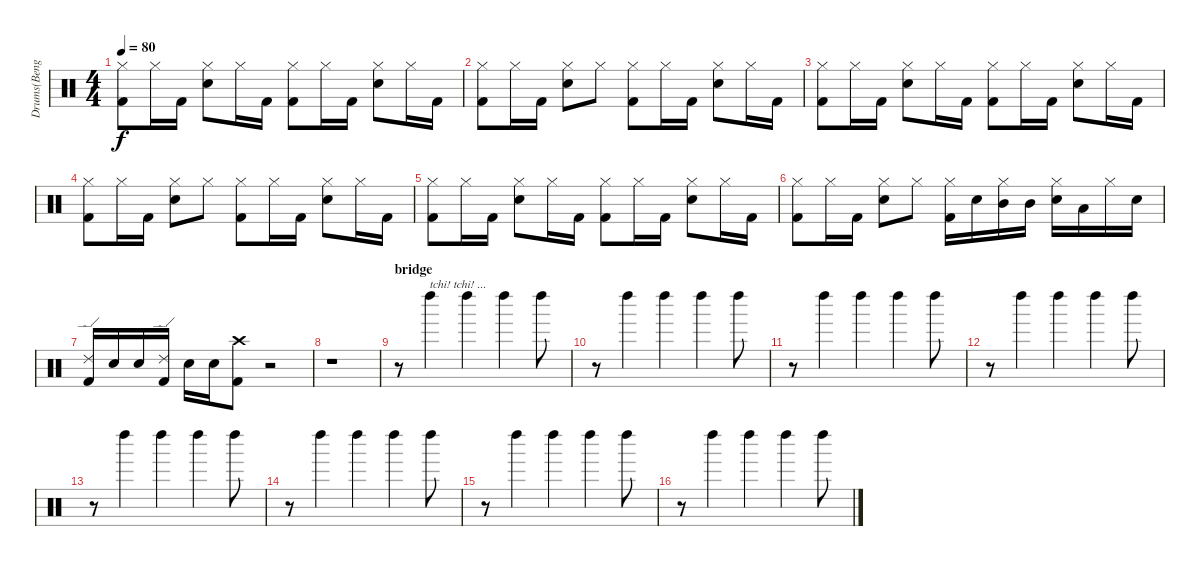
\track ("Drums(Bengerg)" "Drums(Beng") {instrument percussion}
\staff {score}
\articulation defaults
\ts (4 4)
\tempo 80
\clef neutral
\ks c
("Hi-Hat (closed)" "Kick (hit) 2").8{dy f} "Hi-Hat (closed)".16 "Kick (hit) 2".16 ("Hi-Hat (closed)" "Electric Snare (hit)").8 "Hi-Hat (closed)".16 "Kick (hit) 2".16 ("Hi-Hat (closed)" "Kick (hit) 2").8 "Hi-Hat (closed)".16 "Kick (hit) 2".16 ("Hi-Hat (closed)" "Electric Snare (hit)").8 "Hi-Hat (closed)".16 "Kick (hit) 2".16 |
("Hi-Hat (closed)" "Kick (hit) 2").8 "Hi-Hat (closed)".16 "Kick (hit) 2".16 ("Hi-Hat (closed)" "Electric Snare (hit)").8 "Hi-Hat (closed)".8 ("Hi-Hat (closed)" "Kick (hit) 2").8 "Hi-Hat (closed)".16 "Kick (hit) 2".16 ("Hi-Hat (closed)" "Electric Snare (hit)").8 "Hi-Hat (closed)".16 "Kick (hit) 2".16 |
("Hi-Hat (closed)" "Kick (hit) 2").8 "Hi-Hat (closed)".16 "Kick (hit) 2".16 ("Hi-Hat (closed)" "Electric Snare (hit)").8 "Hi-Hat (closed)".16 "Kick (hit) 2".16 ("Hi-Hat (closed)" "Kick (hit) 2").8 "Hi-Hat (closed)".16 "Kick (hit) 2".16 ("Hi-Hat (closed)" "Electric Snare (hit)").8 "Hi-Hat (closed)".16 "Kick (hit) 2".16 |
("Hi-Hat (closed)" "Kick (hit) 2").8 "Hi-Hat (closed)".16 "Kick (hit) 2".16 ("Hi-Hat (closed)" "Electric Snare (hit)").8 "Hi-Hat (closed)".8 ("Hi-Hat (closed)" "Kick (hit) 2").8 "Hi-Hat (closed)".16 "Kick (hit) 2".16 ("Hi-Hat (closed)" "Electric Snare (hit)").8 "Hi-Hat (closed)".16 "Kick (hit) 2".16 |
("Hi-Hat (closed)" "Kick (hit) 2").8 "Hi-Hat (closed)".16 "Kick (hit) 2".16 ("Hi-Hat (closed)" "Electric Snare (hit)").8 "Hi-Hat (closed)".16 "Kick (hit) 2".16 ("Hi-Hat (closed)" "Kick (hit) 2").8 "Hi-Hat (closed)".16 "Kick (hit) 2".16 ("Hi-Hat (closed)" "Electric Snare (hit)").8 "Hi-Hat (closed)".16 "Kick (hit) 2".16 |
("Hi-Hat (closed)" "Kick (hit) 2").8 "Hi-Hat (closed)".16 "Kick (hit) 2".16 ("Hi-Hat (closed)" "Electric Snare (hit)").8 "Hi-Hat (closed)".8 ("Hi-Hat (closed)" "Kick (hit) 2").16 "Electric Snare (hit)".16 ("Hi-Hat (closed)" "Mid Tom (hit)").16 "Mid Tom (hit)".16 ("Hi-Hat (closed)" "Electric Snare (hit)").16 "Low Tom (hit)".16 "Hi-Hat (closed)".16 "Electric Snare (hit)".16 |
("Ride (edge) 2" "Kick (hit) 2").16 "Electric Snare (hit)".16 "Electric Snare (hit)".16 ("Ride (edge) 2" "Kick (hit) 2").16 "Electric Snare (hit)".16 "Electric Snare (hit)".16 ("Crash high (hit)" "Kick (hit) 2").8 r.2 |
r.1 |
\section ("" "bridge")
r.8 "Left Maraca (hit)".4{txt "tchi! tchi! ..."} "Left Maraca (hit)".4 "Left Maraca (hit)".4 "Left Maraca (hit)".8 |
r.8 "Left Maraca (hit)".4 "Left Maraca (hit)".4 "Left Maraca (hit)".4 "Left Maraca (hit)".8 |
r.8 "Left Maraca (hit)".4 "Left Maraca (hit)".4 "Left Maraca (hit)".4 "Left Maraca (hit)".8 |
r.8 "Left Maraca (hit)".4 "Left Maraca (hit)".4 "Left Maraca (hit)".4 "Left Maraca (hit)".8 |
r.8 "Left Maraca (hit)".4 "Left Maraca (hit)".4 "Left Maraca (hit)".4 "Left Maraca (hit)".8 |
r.8 "Left Maraca (hit)".4 "Left Maraca (hit)".4 "Left Maraca (hit)".4 "Left Maraca (hit)".8 |
r.8 "Left Maraca (hit)".4 "Left Maraca (hit)".4 "Left Maraca (hit)".4 "Left Maraca (hit)".8 |
r.8 "Left Maraca (hit)".4 "Left Maraca (hit)".4 "Left Maraca (hit)".4 "Left Maraca (hit)".8
